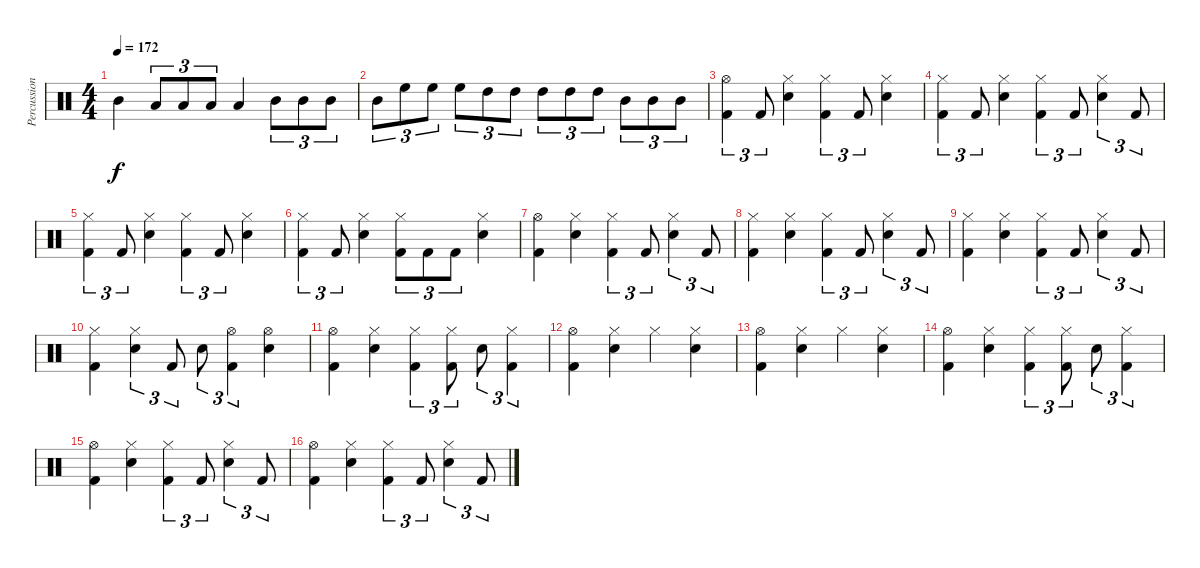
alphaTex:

\track ("Percussions" "Percussion") {instrument percussion}
\staff {score}
\articulation defaults
\ts (4 4)
\tempo 172
\clef neutral
\ks c "Mid Tom (hit)".4{dy f} "Low Tom (hit)".8{tu (3 2)} "Low Tom (hit)".8{tu (3 2)} "Low Tom (hit)".8{tu (3 2)} "Low Tom (hit)".4 "Mid Tom (hit)".8{tu (3 2)} "Mid Tom (hit)".8{tu (3 2)} "Mid Tom (hit)".8{tu (3 2)}
|
"Mid Tom (hit)".8{tu (3 2)} "High Floor Tom (hit)".8{tu (3 2)} "High Floor Tom (hit)".8{tu (3 2)} "High Floor Tom (hit)".8{tu (3 2)} "High Tom (hit)".8{tu (3 2)} "High Tom (hit)".8{tu (3 2)} "High Tom (hit)".8{tu (3 2)} "High Tom (hit)".8{tu (3 2)} "High Tom (hit)".8{tu (3 2)} "Mid Tom (hit)".8{tu (3 2)} "Mid Tom (hit)".8{tu (3 2)} "Mid Tom (hit)".8{tu (3 2)} |
("Hi-Hat (open)" "Kick (hit) 2").4{tu (3 2)} "Kick (hit) 2".8{tu (3 2)} ("Hi-Hat (closed)" "Snare (hit) 2").4 ("Hi-Hat (closed)" "Kick (hit) 2").4{tu (3 2)} "Kick (hit) 2".8{tu (3 2)} ("Hi-Hat (closed)" "Snare (hit) 2").4 |
("Hi-Hat (closed)" "Kick (hit) 2").4{tu (3 2)} "Kick (hit) 2".8{tu (3 2)} ("Hi-Hat (closed)" "Snare (hit) 2").4 ("Hi-Hat (closed)" "Kick (hit) 2").4{tu (3 2)} "Kick (hit) 2".8{tu (3 2)} ("Hi-Hat (closed)" "Snare (hit) 2").4{tu (3 2)} "Kick (hit) 2".8{tu (3 2)} |
("Hi-Hat (closed)" "Kick (hit) 2").4{tu (3 2)} "Kick (hit) 2".8{tu (3 2)} ("Hi-Hat (closed)" "Snare (hit) 2").4 ("Hi-Hat (closed)" "Kick (hit) 2").4{tu (3 2)} "Kick (hit) 2".8{tu (3 2)} ("Hi-Hat (closed)" "Snare (hit) 2").4 |
("Hi-Hat (closed)" "Kick (hit) 2").4{tu (3 2)} "Kick (hit) 2".8{tu (3 2)} ("Hi-Hat (closed)" "Snare (hit) 2").4 ("Hi-Hat (closed)" "Kick (hit) 2").8{tu (3 2)} "Kick (hit) 2".8{tu (3 2)} "Kick (hit) 2".8{tu (3 2)} ("Hi-Hat (closed)" "Snare (hit) 2").4 |
("Hi-Hat (open)" "Kick (hit) 2").4 ("Hi-Hat (closed)" "Snare (hit) 2").4 ("Hi-Hat (closed)" "Kick (hit) 2").4{tu (3 2)} "Kick (hit) 2".8{tu (3 2)} ("Hi-Hat (closed)" "Snare (hit) 2").4{tu (3 2)} "Kick (hit) 2".8{tu (3 2)} |
("Hi-Hat (closed)" "Kick (hit) 2").4 ("Hi-Hat (closed)" "Snare (hit) 2").4 ("Hi-Hat (closed)" "Kick (hit) 2").4{tu (3 2)} "Kick (hit) 2".8{tu (3 2)} ("Hi-Hat (closed)" "Snare (hit) 2").4{tu (3 2)} "Kick (hit) 2".8{tu (3 2)} |
("Hi-Hat (closed)" "Kick (hit) 2").4 ("Hi-Hat (closed)" "Snare (hit) 2").4 ("Hi-Hat (closed)" "Kick (hit) 2").4{tu (3 2)} "Kick (hit) 2".8{tu (3 2)} ("Hi-Hat (closed)" "Snare (hit) 2").4{tu (3 2)} "Kick (hit) 2".8{tu (3 2)} |
("Hi-Hat (closed)" "Kick (hit) 2").4 ("Hi-Hat (closed)" "Snare (hit) 2").4{tu (3 2)} "Kick (hit) 2".8{tu (3 2)} "Snare (hit) 2".8{tu (3 2)} ("Hi-Hat (open)" "Kick (hit) 2").4{tu (3 2)} ("Hi-Hat (open)" "Snare (hit) 2").4 |
("Hi-Hat (open)" "Kick (hit) 2").4 ("Hi-Hat (closed)" "Snare (hit) 2").4 ("Hi-Hat (closed)" "Kick (hit) 2").4{tu (3 2)} ("Hi-Hat (closed)" "Kick (hit) 2").8{tu (3 2)} "Snare (hit) 2".8{tu (3 2)} ("Hi-Hat (closed)" "Kick (hit) 2").4{tu (3 2)} |
("Hi-Hat (open)" "Kick (hit) 2").4 ("Hi-Hat (closed)" "Snare (hit) 2").4 "Hi-Hat (closed)".4 ("Hi-Hat (closed)" "Snare (hit) 2").4 |
("Hi-Hat (open)" "Kick (hit) 2").4 ("Hi-Hat (closed)" "Snare (hit) 2").4 "Hi-Hat (closed)".4 ("Hi-Hat (closed)" "Snare (hit) 2").4 |
("Hi-Hat (open)" "Kick (hit) 2").4 ("Hi-Hat (closed)" "Snare (hit) 2").4 ("Hi-Hat (closed)" "Kick (hit) 2").4{tu (3 2)} ("Hi-Hat (closed)" "Kick (hit) 2").8{tu (3 2)} "Snare (hit) 2".8{tu (3 2)} ("Hi-Hat (closed)" "Kick (hit) 2").4{tu (3 2)} |
("Hi-Hat (open)" "Kick (hit) 2").4 ("Hi-Hat (closed)" "Snare (hit) 2").4 ("Hi-Hat (closed)" "Kick (hit) 2").4{tu (3 2)} "Kick (hit) 2".8{tu (3 2)} ("Hi-Hat (closed)" "Snare (hit) 2").4{tu (3 2)} "Kick (hit) 2".8{tu (3 2)} |
("Hi-Hat (open)" "Kick (hit) 2").4 ("Hi-Hat (closed)" "Snare (hit) 2").4 ("Hi-Hat (closed)" "Kick (hit) 2").4{tu (3 2)} "Kick (hit) 2".8{tu (3 2)} ("Hi-Hat (closed)" "Snare (hit) 2").4{tu (3 2)} "Kick (hit) 2".8{tu (3 2)}
